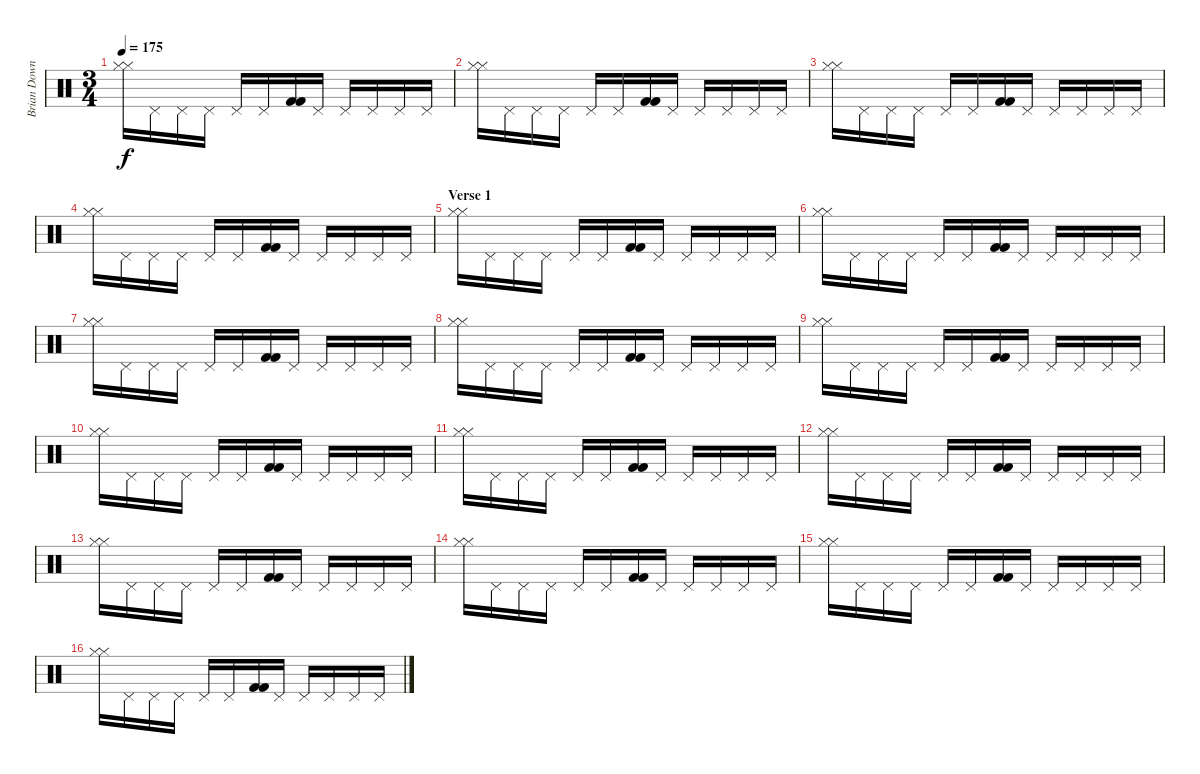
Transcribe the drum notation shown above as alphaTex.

\track ("Brian Downey" "Brian Down") {instrument percussion}
\staff {score}
\articulation defaults
\ts (3 4)
\tempo 175
\clef neutral
\ks c
("Hi-Hat (closed)" "Hi-Hat (closed)").16{dy f} "Pedal Hi-Hat (hit)".16 "Pedal Hi-Hat (hit)".16 "Pedal Hi-Hat (hit)".16 "Pedal Hi-Hat (hit)".16 "Pedal Hi-Hat (hit)".16 ("Kick (hit) 2" "Kick (hit) 2").16 "Pedal Hi-Hat (hit)".16 "Pedal Hi-Hat (hit)".16 "Pedal Hi-Hat (hit)".16 "Pedal Hi-Hat (hit)".16 "Pedal Hi-Hat (hit)".16 |
("Hi-Hat (closed)" "Hi-Hat (closed)").16 "Pedal Hi-Hat (hit)".16 "Pedal Hi-Hat (hit)".16 "Pedal Hi-Hat (hit)".16 "Pedal Hi-Hat (hit)".16 "Pedal Hi-Hat (hit)".16 ("Kick (hit) 2" "Kick (hit) 2").16 "Pedal Hi-Hat (hit)".16 "Pedal Hi-Hat (hit)".16 "Pedal Hi-Hat (hit)".16 "Pedal Hi-Hat (hit)".16 "Pedal Hi-Hat (hit)".16 |
("Hi-Hat (closed)" "Hi-Hat (closed)").16 "Pedal Hi-Hat (hit)".16 "Pedal Hi-Hat (hit)".16 "Pedal Hi-Hat (hit)".16 "Pedal Hi-Hat (hit)".16 "Pedal Hi-Hat (hit)".16 ("Kick (hit) 2" "Kick (hit) 2").16 "Pedal Hi-Hat (hit)".16 "Pedal Hi-Hat (hit)".16 "Pedal Hi-Hat (hit)".16 "Pedal Hi-Hat (hit)".16 "Pedal Hi-Hat (hit)".16 |
("Hi-Hat (closed)" "Hi-Hat (closed)").16 "Pedal Hi-Hat (hit)".16 "Pedal Hi-Hat (hit)".16 "Pedal Hi-Hat (hit)".16 "Pedal Hi-Hat (hit)".16 "Pedal Hi-Hat (hit)".16 ("Kick (hit) 2" "Kick (hit) 2").16 "Pedal Hi-Hat (hit)".16 "Pedal Hi-Hat (hit)".16 "Pedal Hi-Hat (hit)".16 "Pedal Hi-Hat (hit)".16 "Pedal Hi-Hat (hit)".16 |
\section ("" "Verse 1")
("Hi-Hat (closed)" "Hi-Hat (closed)").16 "Pedal Hi-Hat (hit)".16 "Pedal Hi-Hat (hit)".16 "Pedal Hi-Hat (hit)".16 "Pedal Hi-Hat (hit)".16 "Pedal Hi-Hat (hit)".16 ("Kick (hit) 2" "Kick (hit) 2").16 "Pedal Hi-Hat (hit)".16 "Pedal Hi-Hat (hit)".16 "Pedal Hi-Hat (hit)".16 "Pedal Hi-Hat (hit)".16 "Pedal Hi-Hat (hit)".16 |
("Hi-Hat (closed)" "Hi-Hat (closed)").16 "Pedal Hi-Hat (hit)".16 "Pedal Hi-Hat (hit)".16 "Pedal Hi-Hat (hit)".16 "Pedal Hi-Hat (hit)".16 "Pedal Hi-Hat (hit)".16 ("Kick (hit) 2" "Kick (hit) 2").16 "Pedal Hi-Hat (hit)".16 "Pedal Hi-Hat (hit)".16 "Pedal Hi-Hat (hit)".16 "Pedal Hi-Hat (hit)".16 "Pedal Hi-Hat (hit)".16 |
("Hi-Hat (closed)" "Hi-Hat (closed)").16 "Pedal Hi-Hat (hit)".16 "Pedal Hi-Hat (hit)".16 "Pedal Hi-Hat (hit)".16 "Pedal Hi-Hat (hit)".16 "Pedal Hi-Hat (hit)".16 ("Kick (hit) 2" "Kick (hit) 2").16 "Pedal Hi-Hat (hit)".16 "Pedal Hi-Hat (hit)".16 "Pedal Hi-Hat (hit)".16 "Pedal Hi-Hat (hit)".16 "Pedal Hi-Hat (hit)".16 |
("Hi-Hat (closed)" "Hi-Hat (closed)").16 "Pedal Hi-Hat (hit)".16 "Pedal Hi-Hat (hit)".16 "Pedal Hi-Hat (hit)".16 "Pedal Hi-Hat (hit)".16 "Pedal Hi-Hat (hit)".16 ("Kick (hit) 2" "Kick (hit) 2").16 "Pedal Hi-Hat (hit)".16 "Pedal Hi-Hat (hit)".16 "Pedal Hi-Hat (hit)".16 "Pedal Hi-Hat (hit)".16 "Pedal Hi-Hat (hit)".16 |
("Hi-Hat (closed)" "Hi-Hat (closed)").16 "Pedal Hi-Hat (hit)".16 "Pedal Hi-Hat (hit)".16 "Pedal Hi-Hat (hit)".16 "Pedal Hi-Hat (hit)".16 "Pedal Hi-Hat (hit)".16 ("Kick (hit) 2" "Kick (hit) 2").16 "Pedal Hi-Hat (hit)".16 "Pedal Hi-Hat (hit)".16 "Pedal Hi-Hat (hit)".16 "Pedal Hi-Hat (hit)".16 "Pedal Hi-Hat (hit)".16 |
("Hi-Hat (closed)" "Hi-Hat (closed)").16 "Pedal Hi-Hat (hit)".16 "Pedal Hi-Hat (hit)".16 "Pedal Hi-Hat (hit)".16 "Pedal Hi-Hat (hit)".16 "Pedal Hi-Hat (hit)".16 ("Kick (hit) 2" "Kick (hit) 2").16 "Pedal Hi-Hat (hit)".16 "Pedal Hi-Hat (hit)".16 "Pedal Hi-Hat (hit)".16 "Pedal Hi-Hat (hit)".16 "Pedal Hi-Hat (hit)".16 |
("Hi-Hat (closed)" "Hi-Hat (closed)").16 "Pedal Hi-Hat (hit)".16 "Pedal Hi-Hat (hit)".16 "Pedal Hi-Hat (hit)".16 "Pedal Hi-Hat (hit)".16 "Pedal Hi-Hat (hit)".16 ("Kick (hit) 2" "Kick (hit) 2").16 "Pedal Hi-Hat (hit)".16 "Pedal Hi-Hat (hit)".16 "Pedal Hi-Hat (hit)".16 "Pedal Hi-Hat (hit)".16 "Pedal Hi-Hat (hit)".16 |
("Hi-Hat (closed)" "Hi-Hat (closed)").16 "Pedal Hi-Hat (hit)".16 "Pedal Hi-Hat (hit)".16 "Pedal Hi-Hat (hit)".16 "Pedal Hi-Hat (hit)".16 "Pedal Hi-Hat (hit)".16 ("Kick (hit) 2" "Kick (hit) 2").16 "Pedal Hi-Hat (hit)".16 "Pedal Hi-Hat (hit)".16 "Pedal Hi-Hat (hit)".16 "Pedal Hi-Hat (hit)".16 "Pedal Hi-Hat (hit)".16 |
("Hi-Hat (closed)" "Hi-Hat (closed)").16 "Pedal Hi-Hat (hit)".16 "Pedal Hi-Hat (hit)".16 "Pedal Hi-Hat (hit)".16 "Pedal Hi-Hat (hit)".16 "Pedal Hi-Hat (hit)".16 ("Kick (hit) 2" "Kick (hit) 2").16 "Pedal Hi-Hat (hit)".16 "Pedal Hi-Hat (hit)".16 "Pedal Hi-Hat (hit)".16 "Pedal Hi-Hat (hit)".16 "Pedal Hi-Hat (hit)".16 |
("Hi-Hat (closed)" "Hi-Hat (closed)").16 "Pedal Hi-Hat (hit)".16 "Pedal Hi-Hat (hit)".16 "Pedal Hi-Hat (hit)".16 "Pedal Hi-Hat (hit)".16 "Pedal Hi-Hat (hit)".16 ("Kick (hit) 2" "Kick (hit) 2").16 "Pedal Hi-Hat (hit)".16 "Pedal Hi-Hat (hit)".16 "Pedal Hi-Hat (hit)".16 "Pedal Hi-Hat (hit)".16 "Pedal Hi-Hat (hit)".16 |
("Hi-Hat (closed)" "Hi-Hat (closed)").16 "Pedal Hi-Hat (hit)".16 "Pedal Hi-Hat (hit)".16 "Pedal Hi-Hat (hit)".16 "Pedal Hi-Hat (hit)".16 "Pedal Hi-Hat (hit)".16 ("Kick (hit) 2" "Kick (hit) 2").16 "Pedal Hi-Hat (hit)".16 "Pedal Hi-Hat (hit)".16 "Pedal Hi-Hat (hit)".16 "Pedal Hi-Hat (hit)".16 "Pedal Hi-Hat (hit)".16 |
("Hi-Hat (closed)" "Hi-Hat (closed)").16 "Pedal Hi-Hat (hit)".16 "Pedal Hi-Hat (hit)".16 "Pedal Hi-Hat (hit)".16 "Pedal Hi-Hat (hit)".16 "Pedal Hi-Hat (hit)".16 ("Kick (hit) 2" "Kick (hit) 2").16 "Pedal Hi-Hat (hit)".16 "Pedal Hi-Hat (hit)".16 "Pedal Hi-Hat (hit)".16 "Pedal Hi-Hat (hit)".16 "Pedal Hi-Hat (hit)".16
